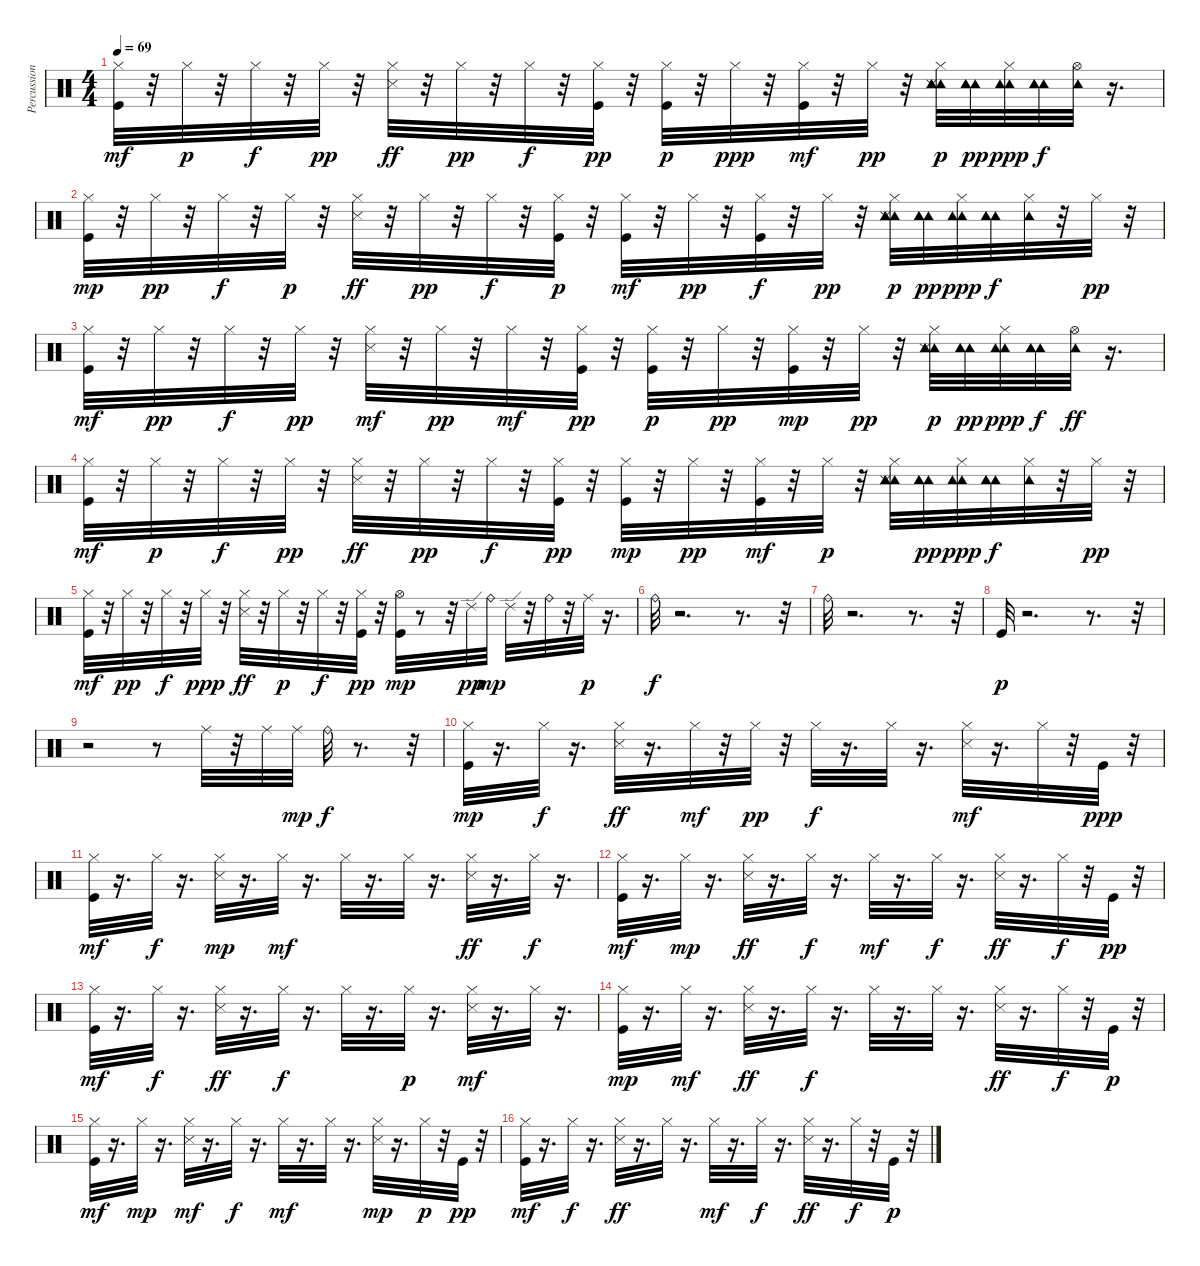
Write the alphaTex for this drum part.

\track ("Percussions" "Percussion") {instrument percussion}
\staff {score}
\articulation defaults
\ts (4 4)
\tempo 69
\clef neutral
\ks c
("Kick (hit)" "Hi-Hat (closed)").32{dy mf} r.32 "Hi-Hat (closed)".32{dy p} r.32 "Hi-Hat (closed)".32{dy f} r.32 "Hi-Hat (closed)".32{dy pp} r.32 ("Hi-Hat (closed)" "Snare (side stick) 3").32{dy ff} r.32 "Hi-Hat (closed)".32{dy pp} r.32 "Hi-Hat (closed)".32{dy f} r.32 ("Hi-Hat (closed)" "Kick (hit)").32{dy pp} r.32 ("Kick (hit)" "Hi-Hat (closed)").32{dy p} r.32 "Hi-Hat (closed)".32{dy ppp} r.32 ("Kick (hit)" "Hi-Hat (closed)").32{dy mf} r.32 "Hi-Hat (closed)".32{dy pp} r.32 ("Tambourine (hit)" "Snare (side stick) 3" "Hi-Hat (closed)" "Tambourine (hit)" "Tambourine (hit)").32{dy p} ("Tambourine (hit)" "Tambourine (hit)" "Tambourine (hit)").32{dy pp} ("Tambourine (hit)" "Hi-Hat (closed)" "Tambourine (hit)").32{dy ppp} ("Tambourine (hit)" "Tambourine (hit)" "Tambourine (hit)").32{dy f} ("Tambourine (hit)" "Hi-Hat (open)").32 r.16{d} |
("Hi-Hat (closed)" "Kick (hit)").32{dy mp} r.32 "Hi-Hat (closed)".32{dy pp} r.32 "Hi-Hat (closed)".32{dy f} r.32 "Hi-Hat (closed)".32{dy p} r.32 ("Snare (side stick) 3" "Hi-Hat (closed)").32{dy ff} r.32 "Hi-Hat (closed)".32{dy pp} r.32 "Hi-Hat (closed)".32{dy f} r.32 ("Hi-Hat (closed)" "Kick (hit)").32{dy p} r.32 ("Hi-Hat (closed)" "Kick (hit)").32{dy mf} r.32 "Hi-Hat (closed)".32{dy pp} r.32 ("Hi-Hat (closed)" "Kick (hit)").32{dy f} r.32 "Hi-Hat (closed)".32{dy pp} r.32 ("Tambourine (hit)" "Hi-Hat (closed)" "Tambourine (hit)" "Snare (side stick) 3" "Tambourine (hit)").32{dy p} ("Tambourine (hit)" "Tambourine (hit)" "Tambourine (hit)").32{dy pp} ("Tambourine (hit)" "Hi-Hat (closed)" "Tambourine (hit)").32{dy ppp} ("Tambourine (hit)" "Tambourine (hit)" "Tambourine (hit)").32{dy f} ("Tambourine (hit)" "Hi-Hat (closed)").32 r.32 "Hi-Hat (closed)".32{dy pp} r.32 |
("Kick (hit)" "Hi-Hat (closed)").32{dy mf} r.32 "Hi-Hat (closed)".32{dy pp} r.32 "Hi-Hat (closed)".32{dy f} r.32 "Hi-Hat (closed)".32{dy pp} r.32 ("Snare (side stick) 3" "Hi-Hat (closed)").32{dy mf} r.32 "Hi-Hat (closed)".32{dy pp} r.32 "Hi-Hat (closed)".32{dy mf} r.32 ("Hi-Hat (closed)" "Kick (hit)").32{dy pp} r.32 ("Hi-Hat (closed)" "Kick (hit)").32{dy p} r.32 "Hi-Hat (closed)".32{dy pp} r.32 ("Hi-Hat (closed)" "Kick (hit)").32{dy mp} r.32 "Hi-Hat (closed)".32{dy pp} r.32 ("Tambourine (hit)" "Hi-Hat (closed)" "Tambourine (hit)" "Snare (side stick) 3" "Tambourine (hit)").32{dy p} ("Tambourine (hit)" "Tambourine (hit)" "Tambourine (hit)").32{dy pp} ("Tambourine (hit)" "Hi-Hat (closed)" "Tambourine (hit)").32{dy ppp} ("Tambourine (hit)" "Tambourine (hit)" "Tambourine (hit)").32{dy f} ("Tambourine (hit)" "Hi-Hat (open)").32{dy ff} r.16{d} |
("Hi-Hat (closed)" "Kick (hit)").32{dy mf} r.32 "Hi-Hat (closed)".32{dy p} r.32 "Hi-Hat (closed)".32{dy f} r.32 "Hi-Hat (closed)".32{dy pp} r.32 ("Hi-Hat (closed)" "Snare (side stick) 3").32{dy ff} r.32 "Hi-Hat (closed)".32{dy pp} r.32 "Hi-Hat (closed)".32{dy f} r.32 ("Hi-Hat (closed)" "Kick (hit)").32{dy pp} r.32 ("Kick (hit)" "Hi-Hat (closed)").32{dy mp} r.32 "Hi-Hat (closed)".32{dy pp} r.32 ("Hi-Hat (closed)" "Kick (hit)").32{dy mf} r.32 "Hi-Hat (closed)".32{dy p} r.32 ("Tambourine (hit)" "Hi-Hat (closed)" "Tambourine (hit)" "Snare (side stick) 3" "Tambourine (hit)").32 ("Tambourine (hit)" "Tambourine (hit)" "Tambourine (hit)").32{dy pp} ("Tambourine (hit)" "Hi-Hat (closed)" "Tambourine (hit)").32{dy ppp} ("Tambourine (hit)" "Tambourine (hit)" "Tambourine (hit)").32{dy f} ("Tambourine (hit)" "Hi-Hat (closed)").32 r.32 "Hi-Hat (closed)".32{dy pp} r.32 |
("Hi-Hat (closed)" "Kick (hit)").32{dy mf} r.32 "Hi-Hat (closed)".32{dy pp} r.32 "Hi-Hat (closed)".32{dy f} r.32 "Hi-Hat (closed)".32{dy ppp} r.32 ("Hi-Hat (closed)" "Snare (side stick) 3").32{dy ff} r.32 "Hi-Hat (closed)".32{dy p} r.32 "Hi-Hat (closed)".32{dy f} r.32 ("Kick (hit)" "Hi-Hat (closed)").32{dy pp} r.32 ("Hi-Hat (open)" "Kick (hit)").32{dy mp} r.8 r.32 "Ride (edge) 2".32{dy pp} "Ride (bell)".32{dy mp} "Ride (edge) 2".32 r.32 "Ride (bell)".32 r.32 "Ride (middle)".32{dy p} r.16{d} |
"Ride (bell)".32{dy f} r.2{d} r.8{d} r.32 |
"Ride (bell)".32 r.2{d} r.8{d} r.32 |
"Kick (hit)".32{dy p} r.2{d} r.8{d} r.32 |
r.2 r.8 "Ride (middle)".32 r.32 "Ride (middle)".32 "Ride (middle)".32{dy mp} "Ride (bell)".32{dy f} r.8{d} r.32 |
("Kick (hit)" "Hi-Hat (closed)").32{dy mp} r.16{d} "Hi-Hat (closed)".32{dy f} r.16{d} ("Snare (side stick) 3" "Hi-Hat (closed)").32{dy ff} r.16{d} "Hi-Hat (closed)".32{dy mf} r.32 "Hi-Hat (closed)".32{dy pp} r.32 "Hi-Hat (closed)".32{dy f} r.16{d} "Hi-Hat (closed)".32 r.16{d} ("Snare (side stick) 3" "Hi-Hat (closed)").32{dy mf} r.16{d} "Hi-Hat (closed)".32 r.32 "Kick (hit)".32{dy ppp} r.32 |
("Kick (hit)" "Hi-Hat (closed)").32{dy mf} r.16{d} "Hi-Hat (closed)".32{dy f} r.16{d} ("Snare (side stick) 3" "Hi-Hat (closed)").32{dy mp} r.16{d} "Hi-Hat (closed)".32{dy mf} r.16{d} "Hi-Hat (closed)".32 r.16{d} "Hi-Hat (closed)".32 r.16{d} ("Hi-Hat (closed)" "Snare (side stick) 3").32{dy ff} r.16{d} "Hi-Hat (closed)".32{dy f} r.16{d} |
("Kick (hit)" "Hi-Hat (closed)").32{dy mf} r.16{d} "Hi-Hat (closed)".32{dy mp} r.16{d} ("Snare (side stick) 3" "Hi-Hat (closed)").32{dy ff} r.16{d} "Hi-Hat (closed)".32{dy f} r.16{d} "Hi-Hat (closed)".32{dy mf} r.16{d} "Hi-Hat (closed)".32{dy f} r.16{d} ("Hi-Hat (closed)" "Snare (side stick) 3").32{dy ff} r.16{d} "Hi-Hat (closed)".32{dy f} r.32 "Kick (hit)".32{dy pp} r.32 |
("Kick (hit)" "Hi-Hat (closed)").32{dy mf} r.16{d} "Hi-Hat (closed)".32{dy f} r.16{d} ("Hi-Hat (closed)" "Snare (side stick) 3").32{dy ff} r.16{d} "Hi-Hat (closed)".32{dy f} r.16{d} "Hi-Hat (closed)".32 r.16{d} "Hi-Hat (closed)".32{dy p} r.16{d} ("Snare (side stick) 3" "Hi-Hat (closed)").32{dy mf} r.16{d} "Hi-Hat (closed)".32 r.16{d} |
("Kick (hit)" "Hi-Hat (closed)").32{dy mp} r.16{d} "Hi-Hat (closed)".32{dy mf} r.16{d} ("Snare (side stick) 3" "Hi-Hat (closed)").32{dy ff} r.16{d} "Hi-Hat (closed)".32{dy f} r.16{d} "Hi-Hat (closed)".32 r.16{d} "Hi-Hat (closed)".32 r.16{d} ("Snare (side stick) 3" "Hi-Hat (closed)").32{dy ff} r.16{d} "Hi-Hat (closed)".32{dy f} r.32 "Kick (hit)".32{dy p} r.32 |
("Kick (hit)" "Hi-Hat (closed)").32{dy mf} r.16{d} "Hi-Hat (closed)".32{dy mp} r.16{d} ("Snare (side stick) 3" "Hi-Hat (closed)").32{dy mf} r.16{d} "Hi-Hat (closed)".32{dy f} r.16{d} "Hi-Hat (closed)".32{dy mf} r.16{d} "Hi-Hat (closed)".32 r.16{d} ("Snare (side stick) 3" "Hi-Hat (closed)").32{dy mp} r.16{d} "Hi-Hat (closed)".32{dy p} r.32 "Kick (hit)".32{dy pp} r.32 |
("Kick (hit)" "Hi-Hat (closed)").32{dy mf} r.16{d} "Hi-Hat (closed)".32{dy f} r.16{d} ("Hi-Hat (closed)" "Snare (side stick) 3").32{dy ff} r.16{d} "Hi-Hat (closed)".32 r.16{d} "Hi-Hat (closed)".32{dy mf} r.16{d} "Hi-Hat (closed)".32{dy f} r.16{d} ("Hi-Hat (closed)" "Snare (side stick) 3").32{dy ff} r.16{d} "Hi-Hat (closed)".32{dy f} r.32 "Kick (hit)".32{dy p} r.32
